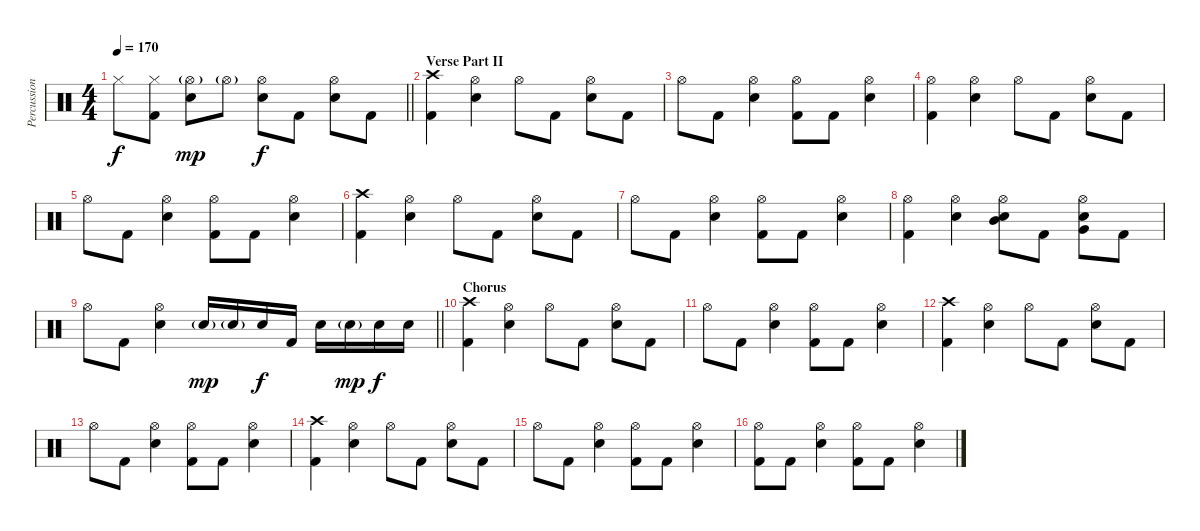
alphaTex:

\track ("Percussion" "Percussion") {instrument percussion}
\staff {score}
\articulation defaults
\ts (4 4)
\tempo 170
\clef neutral
\barLineRight lightlight
\ks c "Hi-Hat (closed)".8{dy f}
("Hi-Hat (closed)" "Kick (hit) 2").8 ("Hi-Hat (open)"{g} "Electric Snare (hit)").8{dy mp} "Hi-Hat (open)"{g}.8 ("Hi-Hat (open)" "Electric Snare (hit)").8{dy f} "Kick (hit) 2".8 ("Hi-Hat (open)" "Electric Snare (hit)").8 "Kick (hit) 2".8 |
\section ("" "Verse Part II")
("Crash high (hit)" "Kick (hit) 2").4 ("Hi-Hat (open)" "Electric Snare (hit)").4 "Hi-Hat (open)".8 "Kick (hit) 2".8 ("Hi-Hat (open)" "Electric Snare (hit)").8 "Kick (hit) 2".8 |
"Hi-Hat (open)".8 "Kick (hit) 2".8 ("Hi-Hat (open)" "Electric Snare (hit)").4 ("Hi-Hat (open)" "Kick (hit) 2").8 "Kick (hit) 2".8 ("Hi-Hat (open)" "Electric Snare (hit)").4 |
("Hi-Hat (open)" "Kick (hit) 2").4 ("Hi-Hat (open)" "Electric Snare (hit)").4 "Hi-Hat (open)".8 "Kick (hit) 2".8 ("Hi-Hat (open)" "Electric Snare (hit)").8 "Kick (hit) 2".8 |
"Hi-Hat (open)".8 "Kick (hit) 2".8 ("Hi-Hat (open)" "Electric Snare (hit)").4 ("Hi-Hat (open)" "Kick (hit) 2").8 "Kick (hit) 2".8 ("Hi-Hat (open)" "Electric Snare (hit)").4 |
("Crash high (hit)" "Kick (hit) 2").4 ("Hi-Hat (open)" "Electric Snare (hit)").4 "Hi-Hat (open)".8 "Kick (hit) 2".8 ("Hi-Hat (open)" "Electric Snare (hit)").8 "Kick (hit) 2".8 |
"Hi-Hat (open)".8 "Kick (hit) 2".8 ("Hi-Hat (open)" "Electric Snare (hit)").4 ("Hi-Hat (open)" "Kick (hit) 2").8 "Kick (hit) 2".8 ("Hi-Hat (open)" "Electric Snare (hit)").4 |
("Hi-Hat (open)" "Kick (hit) 2").4 ("Hi-Hat (open)" "Electric Snare (hit)").4 ("Hi-Hat (open)" "Mid Tom (hit)" "Electric Snare (hit)").8 "Kick (hit) 2".8 ("Hi-Hat (open)" "Very Low Tom (hit)" "Electric Snare (hit)").8 "Kick (hit) 2".8 |
\barLineRight lightlight "Hi-Hat (open)".8 "Kick (hit) 2".8
("Hi-Hat (open)" "Electric Snare (hit)").4 "Electric Snare (hit)"{g}.16{dy mp} "Electric Snare (hit)"{g}.16 "Electric Snare (hit)".16{dy f} "Kick (hit) 2".16 "Electric Snare (hit)".16 "Electric Snare (hit)"{g}.16{dy mp} "Electric Snare (hit)".16{dy f} "Electric Snare (hit)".16 |
\section ("" "Chorus")
("Crash high (hit)" "Kick (hit) 2").4 ("Hi-Hat (open)" "Electric Snare (hit)").4 "Hi-Hat (open)".8 "Kick (hit) 2".8 ("Hi-Hat (open)" "Electric Snare (hit)").8 "Kick (hit) 2".8 |
"Hi-Hat (open)".8 "Kick (hit) 2".8 ("Hi-Hat (open)" "Electric Snare (hit)").4 ("Hi-Hat (open)" "Kick (hit) 2").8 "Kick (hit) 2".8 ("Hi-Hat (open)" "Electric Snare (hit)").4 |
("Crash high (hit)" "Kick (hit) 2").4 ("Hi-Hat (open)" "Electric Snare (hit)").4 "Hi-Hat (open)".8 "Kick (hit) 2".8 ("Hi-Hat (open)" "Electric Snare (hit)").8 "Kick (hit) 2".8 |
"Hi-Hat (open)".8 "Kick (hit) 2".8 ("Hi-Hat (open)" "Electric Snare (hit)").4 ("Hi-Hat (open)" "Kick (hit) 2").8 "Kick (hit) 2".8 ("Hi-Hat (open)" "Electric Snare (hit)").4 |
("Crash high (hit)" "Kick (hit) 2").4 ("Hi-Hat (open)" "Electric Snare (hit)").4 "Hi-Hat (open)".8 "Kick (hit) 2".8 ("Hi-Hat (open)" "Electric Snare (hit)").8 "Kick (hit) 2".8 |
"Hi-Hat (open)".8 "Kick (hit) 2".8 ("Hi-Hat (open)" "Electric Snare (hit)").4 ("Hi-Hat (open)" "Kick (hit) 2").8 "Kick (hit) 2".8 ("Hi-Hat (open)" "Electric Snare (hit)").4 |
("Hi-Hat (open)" "Kick (hit) 2").8 "Kick (hit) 2".8 ("Hi-Hat (open)" "Electric Snare (hit)").4 ("Hi-Hat (open)" "Kick (hit) 2").8 "Kick (hit) 2".8 ("Hi-Hat (open)" "Electric Snare (hit)").4
